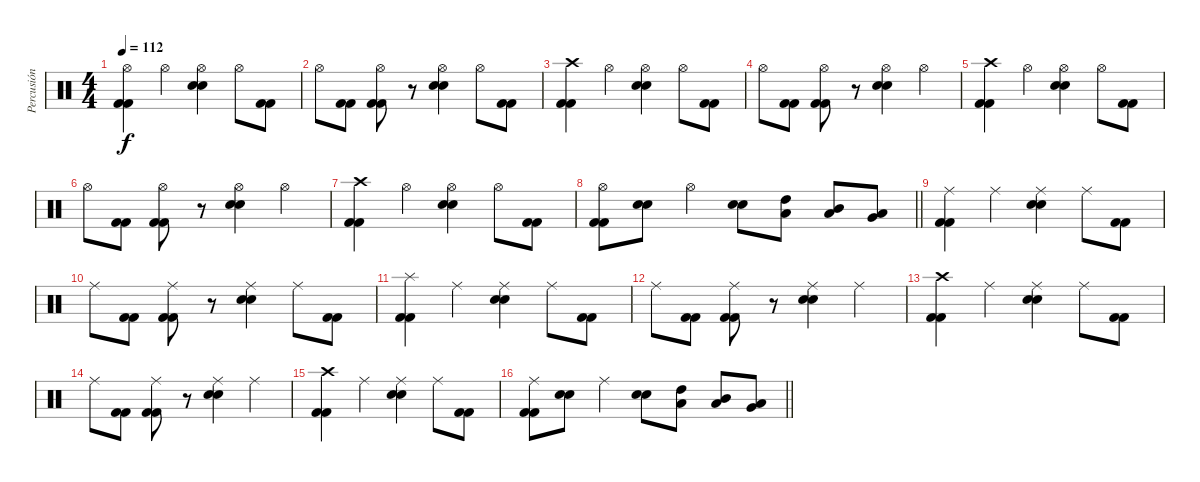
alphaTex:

\track ("Percusión" "Percusión") {instrument percussion}
\staff {score}
\articulation defaults
\ts (4 4)
\tempo 112
\clef neutral
\ks c
("Kick (hit) 2" "Hi-Hat (open)" "Kick (hit) 2").4{dy f} "Hi-Hat (open)".4 ("Hi-Hat (open)" "Electric Snare (hit)" "Electric Snare (hit)").4 "Hi-Hat (open)".8 ("Kick (hit) 2" "Kick (hit) 2").8 |
"Hi-Hat (open)".8 ("Kick (hit) 2" "Kick (hit) 2").8 ("Kick (hit) 2" "Hi-Hat (open)" "Kick (hit) 2").8 r.8 ("Electric Snare (hit)" "Electric Snare (hit)" "Hi-Hat (open)").4 "Hi-Hat (open)".8 ("Kick (hit) 2" "Kick (hit) 2").8 |
("Kick (hit) 2" "Crash high (hit)" "Kick (hit) 2").4 "Hi-Hat (open)".4 ("Hi-Hat (open)" "Electric Snare (hit)" "Electric Snare (hit)").4 "Hi-Hat (open)".8 ("Kick (hit) 2" "Kick (hit) 2").8 |
"Hi-Hat (open)".8 ("Kick (hit) 2" "Kick (hit) 2").8 ("Kick (hit) 2" "Hi-Hat (open)" "Kick (hit) 2").8 r.8 ("Electric Snare (hit)" "Electric Snare (hit)" "Hi-Hat (open)").4 "Hi-Hat (open)".4 |
("Kick (hit) 2" "Crash high (hit)" "Kick (hit) 2").4 "Hi-Hat (open)".4 ("Hi-Hat (open)" "Electric Snare (hit)" "Electric Snare (hit)").4 "Hi-Hat (open)".8 ("Kick (hit) 2" "Kick (hit) 2").8 |
"Hi-Hat (open)".8 ("Kick (hit) 2" "Kick (hit) 2").8 ("Kick (hit) 2" "Hi-Hat (open)" "Kick (hit) 2").8 r.8 ("Electric Snare (hit)" "Electric Snare (hit)" "Hi-Hat (open)").4 "Hi-Hat (open)".4 |
("Kick (hit) 2" "Crash high (hit)" "Kick (hit) 2").4 "Hi-Hat (open)".4 ("Hi-Hat (open)" "Electric Snare (hit)" "Electric Snare (hit)").4 "Hi-Hat (open)".8 ("Kick (hit) 2" "Kick (hit) 2").8 |
\barLineRight lightlight
("Kick (hit) 2" "Hi-Hat (open)" "Kick (hit) 2").8 ("Electric Snare (hit)" "Electric Snare (hit)").8 "Hi-Hat (open)".4 ("Electric Snare (hit)" "Electric Snare (hit)").8 ("High Tom (hit)" "Low Tom (hit)").8 ("Mid Tom (hit)" "Low Tom (hit)").8 ("Low Tom (hit)" "Very Low Tom (hit)").8 |
("Kick (hit) 2" "Ride (middle)" "Kick (hit) 2").4 "Ride (middle)".4 ("Ride (middle)" "Electric Snare (hit)" "Electric Snare (hit)").4 "Ride (middle)".8 ("Kick (hit) 2" "Kick (hit) 2").8 |
"Ride (middle)".8 ("Kick (hit) 2" "Kick (hit) 2").8 ("Kick (hit) 2" "Ride (middle)" "Kick (hit) 2").8 r.8 ("Electric Snare (hit)" "Electric Snare (hit)" "Ride (middle)").4 "Ride (middle)".8 ("Kick (hit) 2" "Kick (hit) 2").8 |
("Kick (hit) 2" "Splash (hit)" "Kick (hit) 2").4 "Ride (middle)".4 ("Ride (middle)" "Electric Snare (hit)" "Electric Snare (hit)").4 "Ride (middle)".8 ("Kick (hit) 2" "Kick (hit) 2").8 |
"Ride (middle)".8 ("Kick (hit) 2" "Kick (hit) 2").8 ("Kick (hit) 2" "Ride (middle)" "Kick (hit) 2").8 r.8 ("Electric Snare (hit)" "Electric Snare (hit)" "Ride (middle)").4 "Ride (middle)".4 |
("Kick (hit) 2" "Crash high (hit)" "Kick (hit) 2").4 "Ride (middle)".4 ("Ride (middle)" "Electric Snare (hit)" "Electric Snare (hit)").4 "Ride (middle)".8 ("Kick (hit) 2" "Kick (hit) 2").8 |
"Ride (middle)".8 ("Kick (hit) 2" "Kick (hit) 2").8 ("Kick (hit) 2" "Ride (middle)" "Kick (hit) 2").8 r.8 ("Electric Snare (hit)" "Electric Snare (hit)" "Ride (middle)").4 "Ride (middle)".4 |
("Kick (hit) 2" "Crash high (hit)" "Kick (hit) 2").4 "Ride (middle)".4 ("Ride (middle)" "Electric Snare (hit)" "Electric Snare (hit)").4 "Ride (middle)".8 ("Kick (hit) 2" "Kick (hit) 2").8 |
\barLineRight lightlight
("Kick (hit) 2" "Ride (middle)" "Kick (hit) 2").8 ("Electric Snare (hit)" "Electric Snare (hit)").8 "Ride (middle)".4 ("Electric Snare (hit)" "Electric Snare (hit)").8 ("High Tom (hit)" "Low Tom (hit)").8 ("Mid Tom (hit)" "Low Tom (hit)").8 ("Low Tom (hit)" "Very Low Tom (hit)").8
